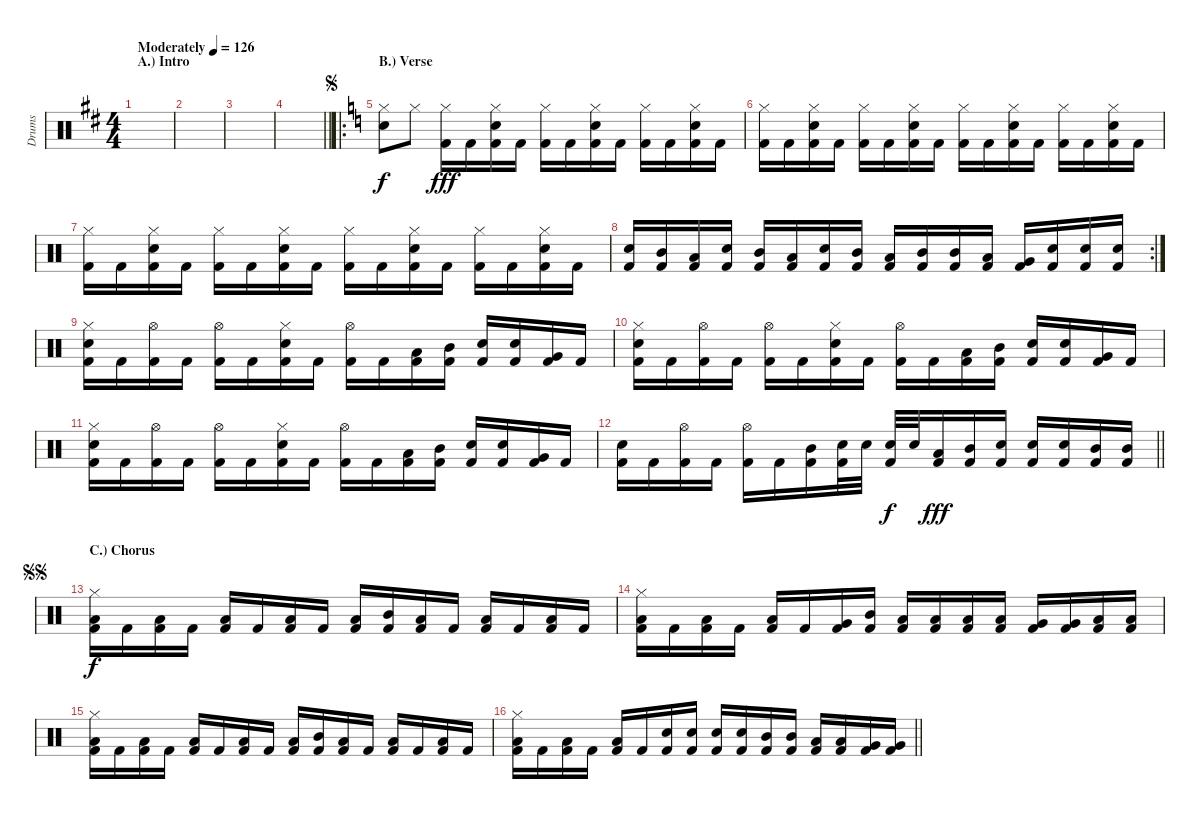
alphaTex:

\track ("Drums" "Drums") {instrument percussion}
\staff {score}
\articulation defaults
\ts (4 4)
\section ("" "A.) Intro  ")
\tempo (126 "Moderately")
\clef neutral
\ks d
|
|
|
\barLineRight lightlight
|
\ro
\section ("" "B.) Verse")
\jump segno
\ks c
("Electric Snare (hit)" "Hi-Hat (closed)").8 "Hi-Hat (closed)".8 ("Hi-Hat (closed)" "Kick (hit) 2").16{dy fff} "Kick (hit) 2".16 ("Electric Snare (hit)" "Hi-Hat (closed)" "Kick (hit) 2").16 "Kick (hit) 2".16 ("Hi-Hat (closed)" "Kick (hit) 2").16 "Kick (hit) 2".16 ("Electric Snare (hit)" "Hi-Hat (closed)" "Kick (hit) 2").16 "Kick (hit) 2".16 ("Hi-Hat (closed)" "Kick (hit) 2").16 "Kick (hit) 2".16 ("Electric Snare (hit)" "Hi-Hat (closed)" "Kick (hit) 2").16 "Kick (hit) 2".16 |
("Hi-Hat (closed)" "Kick (hit) 2").16 "Kick (hit) 2".16 ("Electric Snare (hit)" "Hi-Hat (closed)" "Kick (hit) 2").16 "Kick (hit) 2".16 ("Hi-Hat (closed)" "Kick (hit) 2").16 "Kick (hit) 2".16 ("Electric Snare (hit)" "Hi-Hat (closed)" "Kick (hit) 2").16 "Kick (hit) 2".16 ("Hi-Hat (closed)" "Kick (hit) 2").16 "Kick (hit) 2".16 ("Electric Snare (hit)" "Hi-Hat (closed)" "Kick (hit) 2").16 "Kick (hit) 2".16 ("Hi-Hat (closed)" "Kick (hit) 2").16 "Kick (hit) 2".16 ("Electric Snare (hit)" "Hi-Hat (closed)" "Kick (hit) 2").16 "Kick (hit) 2".16 |
("Hi-Hat (closed)" "Kick (hit) 2").16 "Kick (hit) 2".16 ("Electric Snare (hit)" "Hi-Hat (closed)" "Kick (hit) 2").16 "Kick (hit) 2".16 ("Hi-Hat (closed)" "Kick (hit) 2").16 "Kick (hit) 2".16 ("Electric Snare (hit)" "Hi-Hat (closed)" "Kick (hit) 2").16 "Kick (hit) 2".16 ("Hi-Hat (closed)" "Kick (hit) 2").16 "Kick (hit) 2".16 ("Electric Snare (hit)" "Hi-Hat (closed)" "Kick (hit) 2").16 "Kick (hit) 2".16 ("Hi-Hat (closed)" "Kick (hit) 2").16 "Kick (hit) 2".16 ("Electric Snare (hit)" "Hi-Hat (closed)" "Kick (hit) 2").16 "Kick (hit) 2".16 |
\rc 2
("Electric Snare (hit)" "Kick (hit) 2").16 ("Mid Tom (hit)" "Kick (hit) 2").16 ("Low Tom (hit)" "Kick (hit) 2").16 ("Electric Snare (hit)" "Kick (hit) 2").16 ("Mid Tom (hit)" "Kick (hit) 2").16 ("Low Tom (hit)" "Kick (hit) 2").16 ("Electric Snare (hit)" "Kick (hit) 2").16 ("Mid Tom (hit)" "Kick (hit) 2").16 ("Low Tom (hit)" "Kick (hit) 2").16 ("Mid Tom (hit)" "Kick (hit) 2").16 ("Mid Tom (hit)" "Kick (hit) 2").16 ("Low Tom (hit)" "Kick (hit) 2").16 ("Very Low Tom (hit)" "Kick (hit) 2").16 ("Electric Snare (hit)" "Kick (hit) 2").16 ("Electric Snare (hit)" "Kick (hit) 2").16 ("Electric Snare (hit)" "Kick (hit) 2").16 |
("Electric Snare (hit)" "Hi-Hat (closed)" "Kick (hit) 2").16 "Kick (hit) 2".16 ("Hi-Hat (open)" "Kick (hit) 2").16 "Kick (hit) 2".16 ("Hi-Hat (open)" "Kick (hit) 2").16 "Kick (hit) 2".16 ("Electric Snare (hit)" "Hi-Hat (closed)" "Kick (hit) 2").16 "Kick (hit) 2".16 ("Hi-Hat (open)" "Kick (hit) 2").16 "Kick (hit) 2".16 ("Low Tom (hit)" "Kick (hit) 2").16 ("Mid Tom (hit)" "Kick (hit) 2").16 ("Electric Snare (hit)" "Kick (hit) 2").16 ("Electric Snare (hit)" "Kick (hit) 2").16 ("Very Low Tom (hit)" "Kick (hit) 2").16 "Kick (hit) 2".16 |
("Electric Snare (hit)" "Hi-Hat (closed)" "Kick (hit) 2").16 "Kick (hit) 2".16 ("Hi-Hat (open)" "Kick (hit) 2").16 "Kick (hit) 2".16 ("Hi-Hat (open)" "Kick (hit) 2").16 "Kick (hit) 2".16 ("Electric Snare (hit)" "Hi-Hat (closed)" "Kick (hit) 2").16 "Kick (hit) 2".16 ("Hi-Hat (open)" "Kick (hit) 2").16 "Kick (hit) 2".16 ("Low Tom (hit)" "Kick (hit) 2").16 ("Mid Tom (hit)" "Kick (hit) 2").16 ("Electric Snare (hit)" "Kick (hit) 2").16 ("Electric Snare (hit)" "Kick (hit) 2").16 ("Very Low Tom (hit)" "Kick (hit) 2").16 "Kick (hit) 2".16 |
("Electric Snare (hit)" "Hi-Hat (closed)" "Kick (hit) 2").16 "Kick (hit) 2".16 ("Hi-Hat (open)" "Kick (hit) 2").16 "Kick (hit) 2".16 ("Hi-Hat (open)" "Kick (hit) 2").16 "Kick (hit) 2".16 ("Electric Snare (hit)" "Hi-Hat (closed)" "Kick (hit) 2").16 "Kick (hit) 2".16 ("Hi-Hat (open)" "Kick (hit) 2").16 "Kick (hit) 2".16 ("Low Tom (hit)" "Kick (hit) 2").16 ("Mid Tom (hit)" "Kick (hit) 2").16 ("Electric Snare (hit)" "Kick (hit) 2").16 ("Electric Snare (hit)" "Kick (hit) 2").16 ("Very Low Tom (hit)" "Kick (hit) 2").16 "Kick (hit) 2".16 |
\barLineRight lightlight
("Electric Snare (hit)" "Kick (hit) 2").16 "Kick (hit) 2".16 ("Hi-Hat (open)" "Kick (hit) 2").16 "Kick (hit) 2".16 ("Hi-Hat (open)" "Kick (hit) 2").16 "Kick (hit) 2".16 ("Mid Tom (hit)" "Kick (hit) 2").16 ("Electric Snare (hit)" "Kick (hit) 2").32 "Electric Snare (hit)".32 ("Electric Snare (hit)" "Kick (hit) 2").32{dy f} "Electric Snare (hit)".32 ("Low Tom (hit)" "Kick (hit) 2").16{dy fff} ("Mid Tom (hit)" "Kick (hit) 2").16 ("Electric Snare (hit)" "Kick (hit) 2").16 ("Electric Snare (hit)" "Kick (hit) 2").16 ("Electric Snare (hit)" "Kick (hit) 2").16 ("Mid Tom (hit)" "Kick (hit) 2").16 ("Mid Tom (hit)" "Kick (hit) 2").16 |
\section ("" "C.) Chorus")
\jump segnosegno
("Hi-Hat (closed)" "Low Tom (hit)" "Kick (hit) 2").16{dy f} "Kick (hit) 2".16 ("Low Tom (hit)" "Kick (hit) 2").16 "Kick (hit) 2".16 ("Low Tom (hit)" "Kick (hit) 2").16 "Kick (hit) 2".16 ("Low Tom (hit)" "Kick (hit) 2").16 "Kick (hit) 2".16 ("Low Tom (hit)" "Kick (hit) 2").16 ("Mid Tom (hit)" "Kick (hit) 2").16 ("Low Tom (hit)" "Kick (hit) 2").16 "Kick (hit) 2".16 ("Low Tom (hit)" "Kick (hit) 2").16 "Kick (hit) 2".16 ("Low Tom (hit)" "Kick (hit) 2").16 "Kick (hit) 2".16 |
("Hi-Hat (closed)" "Low Tom (hit)" "Kick (hit) 2").16 "Kick (hit) 2".16 ("Low Tom (hit)" "Kick (hit) 2").16 "Kick (hit) 2".16 ("Low Tom (hit)" "Kick (hit) 2").16 "Kick (hit) 2".16 ("Very Low Tom (hit)" "Kick (hit) 2").16 ("Mid Tom (hit)" "Kick (hit) 2").16 ("Low Tom (hit)" "Kick (hit) 2").16 ("Low Tom (hit)" "Kick (hit) 2").16 ("Low Tom (hit)" "Kick (hit) 2").16 ("Low Tom (hit)" "Kick (hit) 2").16 ("Very Low Tom (hit)" "Kick (hit) 2").16 ("Very Low Tom (hit)" "Kick (hit) 2").16 ("Low Floor Tom (hit)" "Kick (hit) 2").16 ("Low Floor Tom (hit)" "Kick (hit) 2").16 |
("Hi-Hat (closed)" "Low Tom (hit)" "Kick (hit) 2").16 "Kick (hit) 2".16 ("Low Tom (hit)" "Kick (hit) 2").16 "Kick (hit) 2".16 ("Low Tom (hit)" "Kick (hit) 2").16 "Kick (hit) 2".16 ("Low Tom (hit)" "Kick (hit) 2").16 "Kick (hit) 2".16 ("Low Tom (hit)" "Kick (hit) 2").16 ("Mid Tom (hit)" "Kick (hit) 2").16 ("Low Tom (hit)" "Kick (hit) 2").16 "Kick (hit) 2".16 ("Low Tom (hit)" "Kick (hit) 2").16 "Kick (hit) 2".16 ("Low Tom (hit)" "Kick (hit) 2").16 "Kick (hit) 2".16 |
\barLineRight lightlight
("Hi-Hat (closed)" "Low Tom (hit)" "Kick (hit) 2").16 "Kick (hit) 2".16 ("Low Tom (hit)" "Kick (hit) 2").16 "Kick (hit) 2".16 ("Low Tom (hit)" "Kick (hit) 2").16 "Kick (hit) 2".16 ("Electric Snare (hit)" "Kick (hit) 2").16 ("Electric Snare (hit)" "Kick (hit) 2").16 ("Electric Snare (hit)" "Kick (hit) 2").16 ("Electric Snare (hit)" "Kick (hit) 2").16 ("Mid Tom (hit)" "Kick (hit) 2").16 ("Mid Tom (hit)" "Kick (hit) 2").16 ("Low Tom (hit)" "Kick (hit) 2").16 ("Low Tom (hit)" "Kick (hit) 2").16 ("Very Low Tom (hit)" "Kick (hit) 2").16 ("Very Low Tom (hit)" "Kick (hit) 2").16
